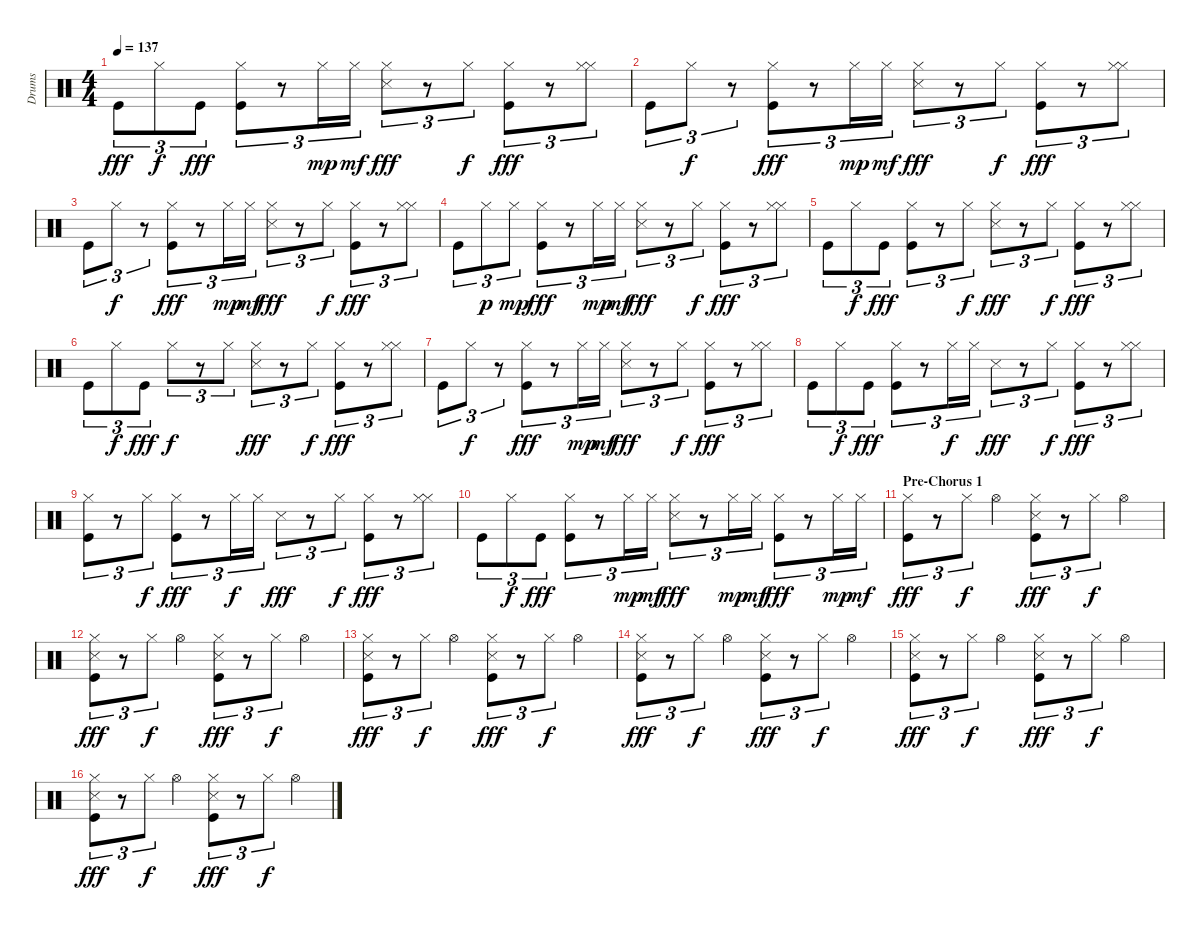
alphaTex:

\track ("Drums" "Drums") {instrument percussion}
\staff {score}
\articulation defaults
\ts (4 4)
\tempo 137
\clef neutral
\ks c "Kick (hit)".8{tu (3 2) dy fff} "Hi-Hat (closed)".8{tu (3 2) dy f} "Kick (hit)".8{tu (3 2) dy fff}
("Hi-Hat (closed)" "Kick (hit)").8{tu (3 2)} r.8{tu (3 2)} "Hi-Hat (closed)".16{tu (3 2) dy mp} "Hi-Hat (closed)".16{tu (3 2) dy mf} ("Hi-Hat (closed)" "Snare (side stick) 3").8{tu (3 2) dy fff} r.8{tu (3 2)} "Hi-Hat (closed)".8{tu (3 2) dy f} ("Hi-Hat (closed)" "Kick (hit)").8{tu (3 2) dy fff} r.8{tu (3 2)} ("Hi-Hat (closed)" "Hi-Hat (closed)").8{tu (3 2)} |
"Kick (hit)".8{tu (3 2)} "Hi-Hat (closed)".8{tu (3 2) dy f} r.8{tu (3 2)} ("Hi-Hat (closed)" "Kick (hit)").8{tu (3 2) dy fff} r.8{tu (3 2)} "Hi-Hat (closed)".16{tu (3 2) dy mp} "Hi-Hat (closed)".16{tu (3 2) dy mf} ("Hi-Hat (closed)" "Snare (side stick) 3").8{tu (3 2) dy fff} r.8{tu (3 2)} "Hi-Hat (closed)".8{tu (3 2) dy f} ("Hi-Hat (closed)" "Kick (hit)").8{tu (3 2) dy fff} r.8{tu (3 2)} ("Hi-Hat (closed)" "Hi-Hat (closed)").8{tu (3 2)} |
"Kick (hit)".8{tu (3 2)} "Hi-Hat (closed)".8{tu (3 2) dy f} r.8{tu (3 2)} ("Hi-Hat (closed)" "Kick (hit)").8{tu (3 2) dy fff} r.8{tu (3 2)} "Hi-Hat (closed)".16{tu (3 2) dy mp} "Hi-Hat (closed)".16{tu (3 2) dy mf} ("Hi-Hat (closed)" "Snare (side stick) 3").8{tu (3 2) dy fff} r.8{tu (3 2)} "Hi-Hat (closed)".8{tu (3 2) dy f} ("Hi-Hat (closed)" "Kick (hit)").8{tu (3 2) dy fff} r.8{tu (3 2)} ("Hi-Hat (closed)" "Hi-Hat (closed)").8{tu (3 2)} |
"Kick (hit)".8{tu (3 2)} "Hi-Hat (closed)".8{tu (3 2) dy p} "Hi-Hat (closed)".8{tu (3 2) dy mp} ("Hi-Hat (closed)" "Kick (hit)").8{tu (3 2) dy fff} r.8{tu (3 2)} "Hi-Hat (closed)".16{tu (3 2) dy mp} "Hi-Hat (closed)".16{tu (3 2) dy mf} ("Hi-Hat (closed)" "Snare (side stick) 3").8{tu (3 2) dy fff} r.8{tu (3 2)} "Hi-Hat (closed)".8{tu (3 2) dy f} ("Hi-Hat (closed)" "Kick (hit)").8{tu (3 2) dy fff} r.8{tu (3 2)} ("Hi-Hat (closed)" "Hi-Hat (closed)").8{tu (3 2)} |
"Kick (hit)".8{tu (3 2)} "Hi-Hat (closed)".8{tu (3 2) dy f} "Kick (hit)".8{tu (3 2) dy fff} ("Hi-Hat (closed)" "Kick (hit)").8{tu (3 2)} r.8{tu (3 2)} "Hi-Hat (closed)".8{tu (3 2) dy f} ("Hi-Hat (closed)" "Snare (side stick) 3").8{tu (3 2) dy fff} r.8{tu (3 2)} "Hi-Hat (closed)".8{tu (3 2) dy f} ("Hi-Hat (closed)" "Kick (hit)").8{tu (3 2) dy fff} r.8{tu (3 2)} ("Hi-Hat (closed)" "Hi-Hat (closed)").8{tu (3 2)} |
"Kick (hit)".8{tu (3 2)} "Hi-Hat (closed)".8{tu (3 2) dy f} "Kick (hit)".8{tu (3 2) dy fff} "Hi-Hat (closed)".8{tu (3 2) dy f} r.8{tu (3 2)} "Hi-Hat (closed)".8{tu (3 2)} ("Hi-Hat (closed)" "Snare (side stick) 3").8{tu (3 2) dy fff} r.8{tu (3 2)} "Hi-Hat (closed)".8{tu (3 2) dy f} ("Hi-Hat (closed)" "Kick (hit)").8{tu (3 2) dy fff} r.8{tu (3 2)} ("Hi-Hat (closed)" "Hi-Hat (closed)").8{tu (3 2)} |
"Kick (hit)".8{tu (3 2)} "Hi-Hat (closed)".8{tu (3 2) dy f} r.8{tu (3 2)} ("Hi-Hat (closed)" "Kick (hit)").8{tu (3 2) dy fff} r.8{tu (3 2)} "Hi-Hat (closed)".16{tu (3 2) dy mp} "Hi-Hat (closed)".16{tu (3 2) dy mf} ("Hi-Hat (closed)" "Snare (side stick) 3").8{tu (3 2) dy fff} r.8{tu (3 2)} "Hi-Hat (closed)".8{tu (3 2) dy f} ("Hi-Hat (closed)" "Kick (hit)").8{tu (3 2) dy fff} r.8{tu (3 2)} ("Hi-Hat (closed)" "Hi-Hat (closed)").8{tu (3 2)} |
"Kick (hit)".8{tu (3 2)} "Hi-Hat (closed)".8{tu (3 2) dy f} "Kick (hit)".8{tu (3 2) dy fff} ("Hi-Hat (closed)" "Kick (hit)").8{tu (3 2)} r.8{tu (3 2)} "Hi-Hat (closed)".16{tu (3 2) dy f} "Hi-Hat (closed)".16{tu (3 2)} "Snare (side stick) 3".8{tu (3 2) dy fff} r.8{tu (3 2)} "Hi-Hat (closed)".8{tu (3 2) dy f} ("Hi-Hat (closed)" "Kick (hit)").8{tu (3 2) dy fff} r.8{tu (3 2)} ("Hi-Hat (closed)" "Hi-Hat (closed)").8{tu (3 2)} |
("Hi-Hat (closed)" "Kick (hit)").8{tu (3 2)} r.8{tu (3 2)} "Hi-Hat (closed)".8{tu (3 2) dy f} ("Hi-Hat (closed)" "Kick (hit)").8{tu (3 2) dy fff} r.8{tu (3 2)} "Hi-Hat (closed)".16{tu (3 2) dy f} "Hi-Hat (closed)".16{tu (3 2)} "Snare (side stick) 3".8{tu (3 2) dy fff} r.8{tu (3 2)} "Hi-Hat (closed)".8{tu (3 2) dy f} ("Hi-Hat (closed)" "Kick (hit)").8{tu (3 2) dy fff} r.8{tu (3 2)} ("Hi-Hat (closed)" "Hi-Hat (closed)").8{tu (3 2)} |
"Kick (hit)".8{tu (3 2)} "Hi-Hat (closed)".8{tu (3 2) dy f} "Kick (hit)".8{tu (3 2) dy fff} ("Hi-Hat (closed)" "Kick (hit)").8{tu (3 2)} r.8{tu (3 2)} "Hi-Hat (closed)".16{tu (3 2) dy mp} "Hi-Hat (closed)".16{tu (3 2) dy mf} ("Hi-Hat (closed)" "Snare (side stick) 3").8{tu (3 2) dy fff} r.8{tu (3 2)} "Hi-Hat (closed)".16{tu (3 2) dy mp} "Hi-Hat (closed)".16{tu (3 2) dy mf} ("Hi-Hat (closed)" "Kick (hit)").8{tu (3 2) dy fff} r.8{tu (3 2)} "Hi-Hat (closed)".16{tu (3 2) dy mp} "Hi-Hat (closed)".16{tu (3 2) dy mf} |
\section ("" "Pre-Chorus 1")
("Hi-Hat (closed)" "Kick (hit)").8{tu (3 2) dy fff} r.8{tu (3 2)} "Hi-Hat (closed)".8{tu (3 2) dy f} "Hi-Hat (open)".4 ("Hi-Hat (closed)" "Snare (side stick) 3" "Kick (hit)").8{tu (3 2) dy fff} r.8{tu (3 2)} "Hi-Hat (closed)".8{tu (3 2) dy f} "Hi-Hat (open)".4 |
("Hi-Hat (closed)" "Snare (side stick) 3" "Kick (hit)").8{tu (3 2) dy fff} r.8{tu (3 2)} "Hi-Hat (closed)".8{tu (3 2) dy f} "Hi-Hat (open)".4 ("Hi-Hat (closed)" "Snare (side stick) 3" "Kick (hit)").8{tu (3 2) dy fff} r.8{tu (3 2)} "Hi-Hat (closed)".8{tu (3 2) dy f} "Hi-Hat (open)".4 |
("Hi-Hat (closed)" "Snare (side stick) 3" "Kick (hit)").8{tu (3 2) dy fff} r.8{tu (3 2)} "Hi-Hat (closed)".8{tu (3 2) dy f} "Hi-Hat (open)".4 ("Hi-Hat (closed)" "Snare (side stick) 3" "Kick (hit)").8{tu (3 2) dy fff} r.8{tu (3 2)} "Hi-Hat (closed)".8{tu (3 2) dy f} "Hi-Hat (open)".4 |
("Hi-Hat (closed)" "Snare (side stick) 3" "Kick (hit)").8{tu (3 2) dy fff} r.8{tu (3 2)} "Hi-Hat (closed)".8{tu (3 2) dy f} "Hi-Hat (open)".4 ("Hi-Hat (closed)" "Snare (side stick) 3" "Kick (hit)").8{tu (3 2) dy fff} r.8{tu (3 2)} "Hi-Hat (closed)".8{tu (3 2) dy f} "Hi-Hat (open)".4 |
("Hi-Hat (closed)" "Snare (side stick) 3" "Kick (hit)").8{tu (3 2) dy fff} r.8{tu (3 2)} "Hi-Hat (closed)".8{tu (3 2) dy f} "Hi-Hat (open)".4 ("Hi-Hat (closed)" "Snare (side stick) 3" "Kick (hit)").8{tu (3 2) dy fff} r.8{tu (3 2)} "Hi-Hat (closed)".8{tu (3 2) dy f} "Hi-Hat (open)".4 |
("Hi-Hat (closed)" "Snare (side stick) 3" "Kick (hit)").8{tu (3 2) dy fff} r.8{tu (3 2)} "Hi-Hat (closed)".8{tu (3 2) dy f} "Hi-Hat (open)".4 ("Hi-Hat (closed)" "Snare (side stick) 3" "Kick (hit)").8{tu (3 2) dy fff} r.8{tu (3 2)} "Hi-Hat (closed)".8{tu (3 2) dy f} "Hi-Hat (open)".4
